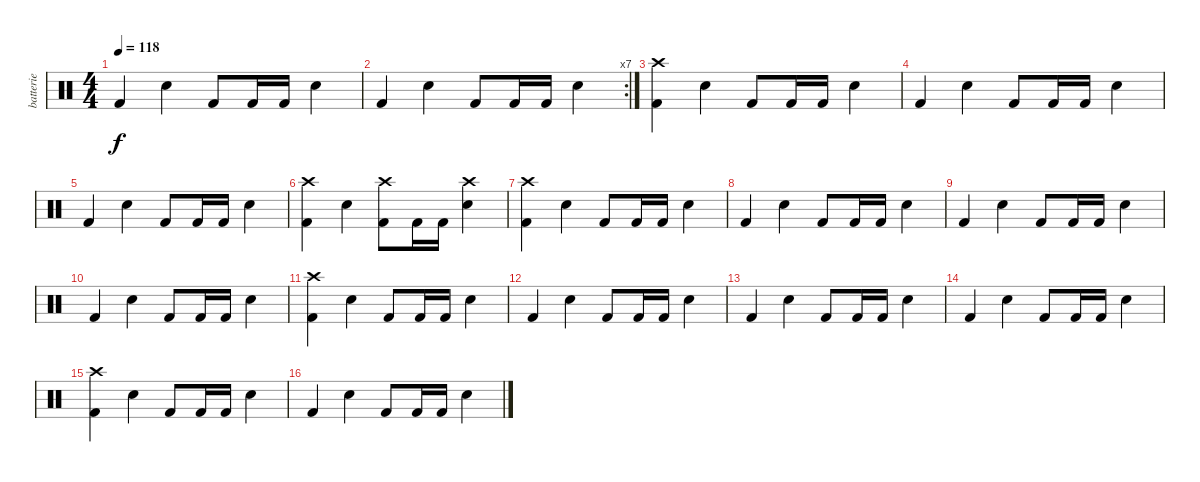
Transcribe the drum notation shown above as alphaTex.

\track ("batterie" "batterie") {instrument percussion}
\staff {score}
\articulation defaults
\ts (4 4)
\tempo 118
\clef neutral
\ks c "Kick (hit) 2".4{dy f} "Electric Snare (hit)".4 "Kick (hit) 2".8 "Kick (hit) 2".16 "Kick (hit) 2".16 "Electric Snare (hit)".4
|
\rc 7 "Kick (hit) 2".4 "Electric Snare (hit)".4 "Kick (hit) 2".8 "Kick (hit) 2".16 "Kick (hit) 2".16 "Electric Snare (hit)".4
|
("Crash high (hit)" "Kick (hit) 2").4 "Electric Snare (hit)".4 "Kick (hit) 2".8 "Kick (hit) 2".16 "Kick (hit) 2".16 "Electric Snare (hit)".4 |
"Kick (hit) 2".4 "Electric Snare (hit)".4 "Kick (hit) 2".8 "Kick (hit) 2".16 "Kick (hit) 2".16 "Electric Snare (hit)".4 |
"Kick (hit) 2".4 "Electric Snare (hit)".4 "Kick (hit) 2".8 "Kick (hit) 2".16 "Kick (hit) 2".16 "Electric Snare (hit)".4 |
("Crash high (hit)" "Kick (hit) 2").4 "Electric Snare (hit)".4 ("Crash high (hit)" "Kick (hit) 2").8 "Kick (hit) 2".16 "Kick (hit) 2".16 ("Crash high (hit)" "Electric Snare (hit)").4 |
("Crash high (hit)" "Kick (hit) 2").4 "Electric Snare (hit)".4 "Kick (hit) 2".8 "Kick (hit) 2".16 "Kick (hit) 2".16 "Electric Snare (hit)".4 |
"Kick (hit) 2".4 "Electric Snare (hit)".4 "Kick (hit) 2".8 "Kick (hit) 2".16 "Kick (hit) 2".16 "Electric Snare (hit)".4 |
"Kick (hit) 2".4 "Electric Snare (hit)".4 "Kick (hit) 2".8 "Kick (hit) 2".16 "Kick (hit) 2".16 "Electric Snare (hit)".4 |
"Kick (hit) 2".4 "Electric Snare (hit)".4 "Kick (hit) 2".8 "Kick (hit) 2".16 "Kick (hit) 2".16 "Electric Snare (hit)".4 |
("Crash high (hit)" "Kick (hit) 2").4 "Electric Snare (hit)".4 "Kick (hit) 2".8 "Kick (hit) 2".16 "Kick (hit) 2".16 "Electric Snare (hit)".4 |
"Kick (hit) 2".4 "Electric Snare (hit)".4 "Kick (hit) 2".8 "Kick (hit) 2".16 "Kick (hit) 2".16 "Electric Snare (hit)".4 |
"Kick (hit) 2".4 "Electric Snare (hit)".4 "Kick (hit) 2".8 "Kick (hit) 2".16 "Kick (hit) 2".16 "Electric Snare (hit)".4 |
"Kick (hit) 2".4 "Electric Snare (hit)".4 "Kick (hit) 2".8 "Kick (hit) 2".16 "Kick (hit) 2".16 "Electric Snare (hit)".4 |
("Crash high (hit)" "Kick (hit) 2").4 "Electric Snare (hit)".4 "Kick (hit) 2".8 "Kick (hit) 2".16 "Kick (hit) 2".16 "Electric Snare (hit)".4 |
"Kick (hit) 2".4 "Electric Snare (hit)".4 "Kick (hit) 2".8 "Kick (hit) 2".16 "Kick (hit) 2".16 "Electric Snare (hit)".4
